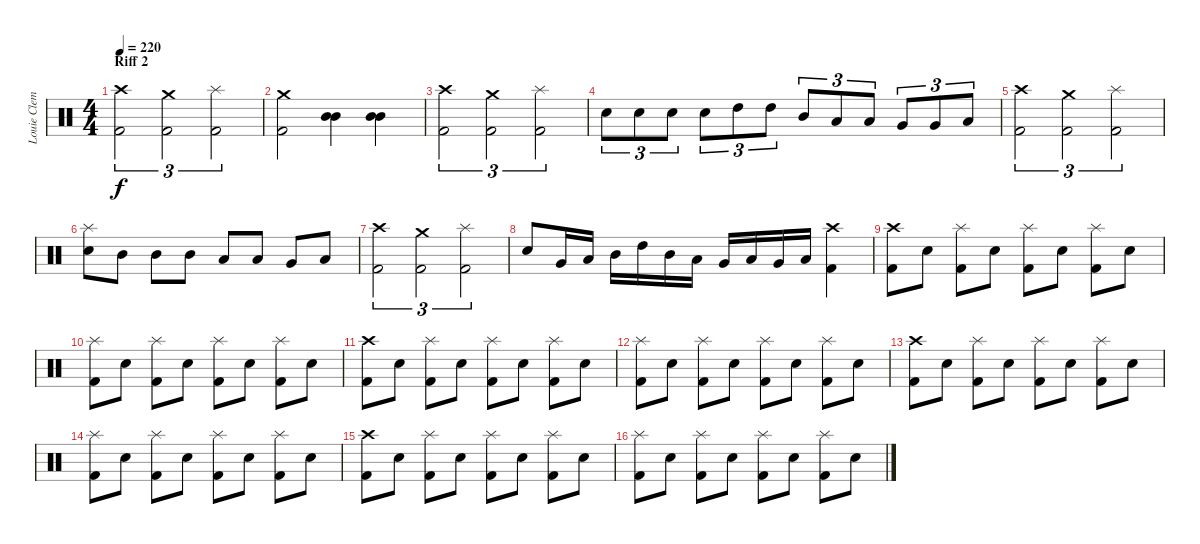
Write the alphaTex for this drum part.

\track ("Louie Clemente (Drums)" "Louie Clem") {instrument percussion}
\staff {score}
\articulation defaults
\ts (4 4)
\section ("" "Riff 2")
\tempo 220
\clef neutral
\ks c
("Crash high (hit)" "Kick (hit) 2").2{tu (3 2) dy f} ("Crash medium (hit)" "Kick (hit) 2").2{tu (3 2)} ("Splash (hit)" "Kick (hit) 2").2{tu (3 2)} |
("Crash medium (hit)" "Kick (hit) 2").2 ("Mid Tom (hit)" "Mid Tom (hit)").4 ("Mid Tom (hit)" "Mid Tom (hit)").4 |
("Crash high (hit)" "Kick (hit) 2").2{tu (3 2)} ("Crash medium (hit)" "Kick (hit) 2").2{tu (3 2)} ("Splash (hit)" "Kick (hit) 2").2{tu (3 2)} |
"Electric Snare (hit)".8{tu (3 2)} "Electric Snare (hit)".8{tu (3 2)} "Electric Snare (hit)".8{tu (3 2)} "Electric Snare (hit)".8{tu (3 2)} "High Tom (hit)".8{tu (3 2)} "High Tom (hit)".8{tu (3 2)} "Mid Tom (hit)".8{tu (3 2)} "Low Tom (hit)".8{tu (3 2)} "Low Tom (hit)".8{tu (3 2)} "Very Low Tom (hit)".8{tu (3 2)} "Very Low Tom (hit)".8{tu (3 2)} "Low Floor Tom (hit)".8{tu (3 2)} |
("Crash high (hit)" "Kick (hit) 2").2{tu (3 2)} ("Crash medium (hit)" "Kick (hit) 2").2{tu (3 2)} ("Splash (hit)" "Kick (hit) 2").2{tu (3 2)} |
("Splash (hit)" "Electric Snare (hit)").8 "Mid Tom (hit)".8 "Mid Tom (hit)".8 "Mid Tom (hit)".8 "Low Tom (hit)".8 "Low Tom (hit)".8 "Very Low Tom (hit)".8 "Low Floor Tom (hit)".8 |
("Crash high (hit)" "Kick (hit) 2").2{tu (3 2)} ("Crash medium (hit)" "Kick (hit) 2").2{tu (3 2)} ("Splash (hit)" "Kick (hit) 2").2{tu (3 2)} |
"Electric Snare (hit)".8 "Very Low Tom (hit)".16 "Low Tom (hit)".16 "Mid Tom (hit)".16 "High Tom (hit)".16 "Mid Tom (hit)".16 "Low Tom (hit)".16 "Very Low Tom (hit)".16 "Low Floor Tom (hit)".16 "Very Low Tom (hit)".16 "Low Tom (hit)".16 ("Crash high (hit)" "Kick (hit) 2").4 |
("Crash high (hit)" "Kick (hit) 2").8 "Electric Snare (hit)".8 ("Splash (hit)" "Kick (hit) 2").8 "Electric Snare (hit)".8 ("Splash (hit)" "Kick (hit) 2").8 "Electric Snare (hit)".8 ("Splash (hit)" "Kick (hit) 2").8 "Electric Snare (hit)".8 |
("Splash (hit)" "Kick (hit) 2").8 "Electric Snare (hit)".8 ("Splash (hit)" "Kick (hit) 2").8 "Electric Snare (hit)".8 ("Splash (hit)" "Kick (hit) 2").8 "Electric Snare (hit)".8 ("Splash (hit)" "Kick (hit) 2").8 "Electric Snare (hit)".8 |
("Crash high (hit)" "Kick (hit) 2").8 "Electric Snare (hit)".8 ("Splash (hit)" "Kick (hit) 2").8 "Electric Snare (hit)".8 ("Splash (hit)" "Kick (hit) 2").8 "Electric Snare (hit)".8 ("Splash (hit)" "Kick (hit) 2").8 "Electric Snare (hit)".8 |
("Splash (hit)" "Kick (hit) 2").8 "Electric Snare (hit)".8 ("Splash (hit)" "Kick (hit) 2").8 "Electric Snare (hit)".8 ("Splash (hit)" "Kick (hit) 2").8 "Electric Snare (hit)".8 ("Splash (hit)" "Kick (hit) 2").8 "Electric Snare (hit)".8 |
("Crash high (hit)" "Kick (hit) 2").8 "Electric Snare (hit)".8 ("Splash (hit)" "Kick (hit) 2").8 "Electric Snare (hit)".8 ("Splash (hit)" "Kick (hit) 2").8 "Electric Snare (hit)".8 ("Splash (hit)" "Kick (hit) 2").8 "Electric Snare (hit)".8 |
("Splash (hit)" "Kick (hit) 2").8 "Electric Snare (hit)".8 ("Splash (hit)" "Kick (hit) 2").8 "Electric Snare (hit)".8 ("Splash (hit)" "Kick (hit) 2").8 "Electric Snare (hit)".8 ("Splash (hit)" "Kick (hit) 2").8 "Electric Snare (hit)".8 |
("Crash high (hit)" "Kick (hit) 2").8 "Electric Snare (hit)".8 ("Splash (hit)" "Kick (hit) 2").8 "Electric Snare (hit)".8 ("Splash (hit)" "Kick (hit) 2").8 "Electric Snare (hit)".8 ("Splash (hit)" "Kick (hit) 2").8 "Electric Snare (hit)".8 |
("Splash (hit)" "Kick (hit) 2").8 "Electric Snare (hit)".8 ("Splash (hit)" "Kick (hit) 2").8 "Electric Snare (hit)".8 ("Splash (hit)" "Kick (hit) 2").8 "Electric Snare (hit)".8 ("Splash (hit)" "Kick (hit) 2").8 "Electric Snare (hit)".8
